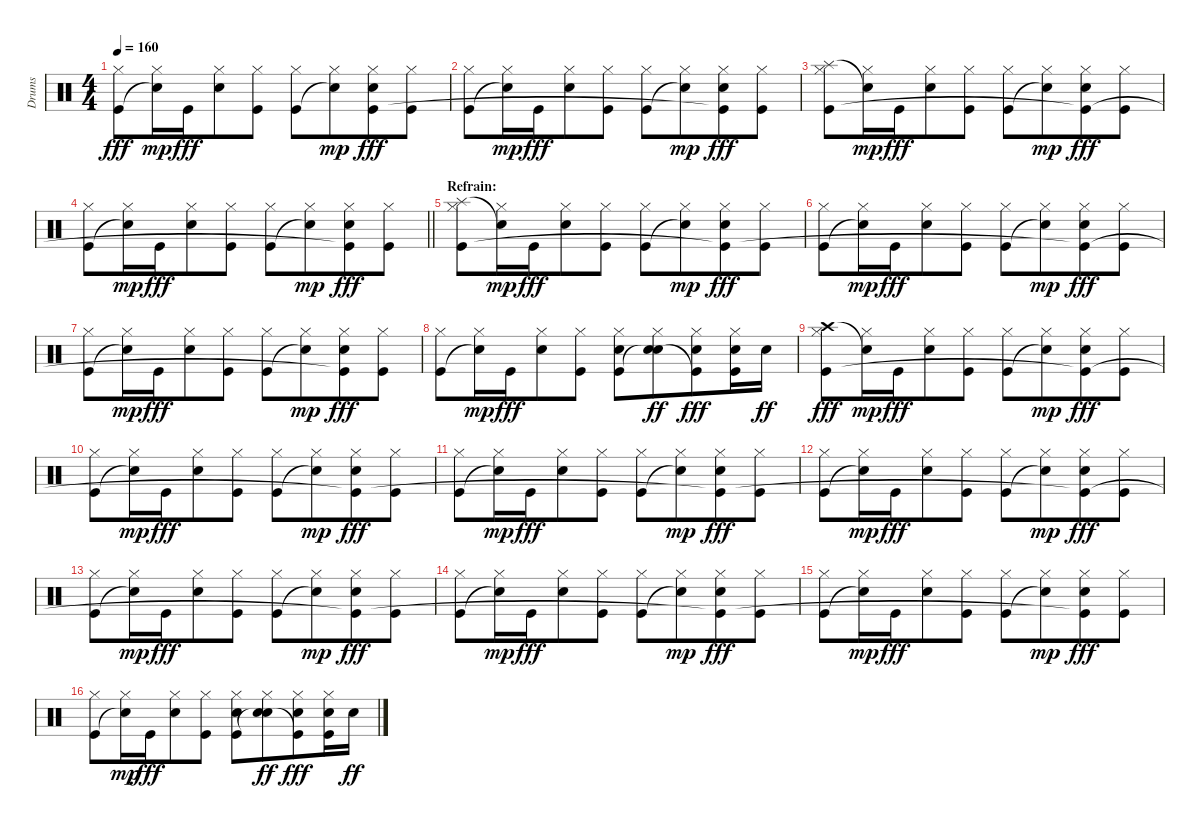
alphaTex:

\track ("Drums" "Drums") {instrument percussion}
\staff {score}
\articulation defaults
\ts (4 4)
\tempo 160
\clef neutral
\ks c
("Hi-Hat (closed)" "Kick (hit)").8{dy fff} ("Hi-Hat (closed)" "Snare (hit)"{t}).16{dy mp} "Kick (hit)".16{dy fff beam merge} ("Hi-Hat (closed)" "Snare (hit) 2").8 ("Hi-Hat (closed)" "Kick (hit)").8 ("Hi-Hat (closed)" "Kick (hit)").8 ("Hi-Hat (closed)" "Snare (hit)"{t}).8{dy mp beam merge} ("Hi-Hat (closed)" "Snare (hit) 2" "Kick (hit)"{t}).8{dy fff} ("Hi-Hat (closed)" "Kick (hit)").8 |
("Hi-Hat (closed)" "Kick (hit)").8 ("Hi-Hat (closed)" "Snare (hit)"{t}).16{dy mp} "Kick (hit)".16{dy fff beam merge} ("Hi-Hat (closed)" "Snare (hit) 2").8 ("Hi-Hat (closed)" "Kick (hit)").8 ("Hi-Hat (closed)" "Kick (hit)").8 ("Hi-Hat (closed)" "Snare (hit)"{t}).8{dy mp beam merge} ("Hi-Hat (closed)" "Snare (hit) 2" "Kick (hit)"{t}).8{dy fff} ("Hi-Hat (closed)" "Kick (hit)").8 |
("Hi-Hat (closed)" "Splash (hit)" "Kick (hit)").8 ("Hi-Hat (closed)" "Snare (hit)"{t}).16{dy mp} "Kick (hit)".16{dy fff beam merge} ("Hi-Hat (closed)" "Snare (hit) 2").8 ("Hi-Hat (closed)" "Kick (hit)").8 ("Hi-Hat (closed)" "Kick (hit)").8 ("Hi-Hat (closed)" "Snare (hit)"{t}).8{dy mp beam merge} ("Hi-Hat (closed)" "Snare (hit) 2" "Kick (hit)"{t}).8{dy fff} ("Hi-Hat (closed)" "Kick (hit)").8 |
\barLineRight lightlight
("Hi-Hat (closed)" "Kick (hit)").8 ("Hi-Hat (closed)" "Snare (hit)"{t}).16{dy mp} "Kick (hit)".16{dy fff beam merge} ("Hi-Hat (closed)" "Snare (hit) 2").8 ("Hi-Hat (closed)" "Kick (hit)").8 ("Hi-Hat (closed)" "Kick (hit)").8 ("Hi-Hat (closed)" "Snare (hit)"{t}).8{dy mp beam merge} ("Hi-Hat (closed)" "Snare (hit) 2" "Kick (hit)"{t}).8{dy fff} ("Hi-Hat (closed)" "Kick (hit)").8 |
\section ("" "Refrain:")
("Hi-Hat (closed)" "Splash (hit)" "Kick (hit)").8 ("Hi-Hat (closed)" "Snare (hit)"{t}).16{dy mp} "Kick (hit)".16{dy fff beam merge} ("Hi-Hat (closed)" "Snare (hit) 2").8 ("Hi-Hat (closed)" "Kick (hit)").8 ("Hi-Hat (closed)" "Kick (hit)").8 ("Hi-Hat (closed)" "Snare (hit)"{t}).8{dy mp beam merge} ("Hi-Hat (closed)" "Snare (hit) 2" "Kick (hit)"{t}).8{dy fff} ("Hi-Hat (closed)" "Kick (hit)").8 |
("Hi-Hat (closed)" "Kick (hit)").8 ("Hi-Hat (closed)" "Snare (hit)"{t}).16{dy mp} "Kick (hit)".16{dy fff beam merge} ("Hi-Hat (closed)" "Snare (hit) 2").8 ("Hi-Hat (closed)" "Kick (hit)").8 ("Hi-Hat (closed)" "Kick (hit)").8 ("Hi-Hat (closed)" "Snare (hit)"{t}).8{dy mp beam merge} ("Hi-Hat (closed)" "Snare (hit) 2" "Kick (hit)"{t}).8{dy fff} ("Hi-Hat (closed)" "Kick (hit)").8 |
("Hi-Hat (closed)" "Kick (hit)").8 ("Hi-Hat (closed)" "Snare (hit)"{t}).16{dy mp} "Kick (hit)".16{dy fff beam merge} ("Hi-Hat (closed)" "Snare (hit) 2").8 ("Hi-Hat (closed)" "Kick (hit)").8 ("Hi-Hat (closed)" "Kick (hit)").8 ("Hi-Hat (closed)" "Snare (hit)"{t}).8{dy mp beam merge} ("Hi-Hat (closed)" "Snare (hit) 2" "Kick (hit)"{t}).8{dy fff} ("Hi-Hat (closed)" "Kick (hit)").8 |
("Hi-Hat (closed)" "Kick (hit)").8 ("Hi-Hat (closed)" "Snare (hit)"{t}).16{dy mp} "Kick (hit)".16{dy fff beam merge} ("Hi-Hat (closed)" "Snare (hit) 2").8 ("Hi-Hat (closed)" "Kick (hit)").8 ("Hi-Hat (closed)" "Snare (hit) 2" "Kick (hit)").8 ("Hi-Hat (closed)" "Snare (hit) 2" "Snare (hit)"{t}).8{dy ff beam merge} ("Hi-Hat (closed)" "Snare (hit) 2" "Kick (hit)"{t}).8{dy fff} ("Hi-Hat (closed)" "Snare (hit) 2" "Kick (hit)").16 "Snare (hit) 2".16{dy ff} |
("Hi-Hat (closed)" "Crash high (hit)" "Kick (hit)").8{dy fff} ("Hi-Hat (closed)" "Snare (hit)"{t}).16{dy mp} "Kick (hit)".16{dy fff beam merge} ("Hi-Hat (closed)" "Snare (hit) 2").8 ("Hi-Hat (closed)" "Kick (hit)").8 ("Hi-Hat (closed)" "Kick (hit)").8 ("Hi-Hat (closed)" "Snare (hit)"{t}).8{dy mp beam merge} ("Hi-Hat (closed)" "Snare (hit) 2" "Kick (hit)"{t}).8{dy fff} ("Hi-Hat (closed)" "Kick (hit)").8 |
("Hi-Hat (closed)" "Kick (hit)").8 ("Hi-Hat (closed)" "Snare (hit)"{t}).16{dy mp} "Kick (hit)".16{dy fff beam merge} ("Hi-Hat (closed)" "Snare (hit) 2").8 ("Hi-Hat (closed)" "Kick (hit)").8 ("Hi-Hat (closed)" "Kick (hit)").8 ("Hi-Hat (closed)" "Snare (hit)"{t}).8{dy mp beam merge} ("Hi-Hat (closed)" "Snare (hit) 2" "Kick (hit)"{t}).8{dy fff} ("Hi-Hat (closed)" "Kick (hit)").8 |
("Hi-Hat (closed)" "Kick (hit)").8 ("Hi-Hat (closed)" "Snare (hit)"{t}).16{dy mp} "Kick (hit)".16{dy fff beam merge} ("Hi-Hat (closed)" "Snare (hit) 2").8 ("Hi-Hat (closed)" "Kick (hit)").8 ("Hi-Hat (closed)" "Kick (hit)").8 ("Hi-Hat (closed)" "Snare (hit)"{t}).8{dy mp beam merge} ("Hi-Hat (closed)" "Snare (hit) 2" "Kick (hit)"{t}).8{dy fff} ("Hi-Hat (closed)" "Kick (hit)").8 |
("Hi-Hat (closed)" "Kick (hit)").8 ("Hi-Hat (closed)" "Snare (hit)"{t}).16{dy mp} "Kick (hit)".16{dy fff beam merge} ("Hi-Hat (closed)" "Snare (hit) 2").8 ("Hi-Hat (closed)" "Kick (hit)").8 ("Hi-Hat (closed)" "Kick (hit)").8 ("Hi-Hat (closed)" "Snare (hit)"{t}).8{dy mp beam merge} ("Hi-Hat (closed)" "Snare (hit) 2" "Kick (hit)"{t}).8{dy fff} ("Hi-Hat (closed)" "Kick (hit)").8 |
("Hi-Hat (closed)" "Kick (hit)").8 ("Hi-Hat (closed)" "Snare (hit)"{t}).16{dy mp} "Kick (hit)".16{dy fff beam merge} ("Hi-Hat (closed)" "Snare (hit) 2").8 ("Hi-Hat (closed)" "Kick (hit)").8 ("Hi-Hat (closed)" "Kick (hit)").8 ("Hi-Hat (closed)" "Snare (hit)"{t}).8{dy mp beam merge} ("Hi-Hat (closed)" "Snare (hit) 2" "Kick (hit)"{t}).8{dy fff} ("Hi-Hat (closed)" "Kick (hit)").8 |
("Hi-Hat (closed)" "Kick (hit)").8 ("Hi-Hat (closed)" "Snare (hit)"{t}).16{dy mp} "Kick (hit)".16{dy fff beam merge} ("Hi-Hat (closed)" "Snare (hit) 2").8 ("Hi-Hat (closed)" "Kick (hit)").8 ("Hi-Hat (closed)" "Kick (hit)").8 ("Hi-Hat (closed)" "Snare (hit)"{t}).8{dy mp beam merge} ("Hi-Hat (closed)" "Snare (hit) 2" "Kick (hit)"{t}).8{dy fff} ("Hi-Hat (closed)" "Kick (hit)").8 |
("Hi-Hat (closed)" "Kick (hit)").8 ("Hi-Hat (closed)" "Snare (hit)"{t}).16{dy mp} "Kick (hit)".16{dy fff beam merge} ("Hi-Hat (closed)" "Snare (hit) 2").8 ("Hi-Hat (closed)" "Kick (hit)").8 ("Hi-Hat (closed)" "Kick (hit)").8 ("Hi-Hat (closed)" "Snare (hit)"{t}).8{dy mp beam merge} ("Hi-Hat (closed)" "Snare (hit) 2" "Kick (hit)"{t}).8{dy fff} ("Hi-Hat (closed)" "Kick (hit)").8 |
("Hi-Hat (closed)" "Kick (hit)").8 ("Hi-Hat (closed)" "Snare (hit)"{t}).16{dy mp} "Kick (hit)".16{dy fff beam merge} ("Hi-Hat (closed)" "Snare (hit) 2").8 ("Hi-Hat (closed)" "Kick (hit)").8 ("Hi-Hat (closed)" "Snare (hit) 2" "Kick (hit)").8 ("Hi-Hat (closed)" "Snare (hit) 2" "Snare (hit)"{t}).8{dy ff beam merge} ("Hi-Hat (closed)" "Snare (hit) 2" "Kick (hit)"{t}).8{dy fff} ("Hi-Hat (closed)" "Snare (hit) 2" "Kick (hit)").16 "Snare (hit) 2".16{dy ff}
